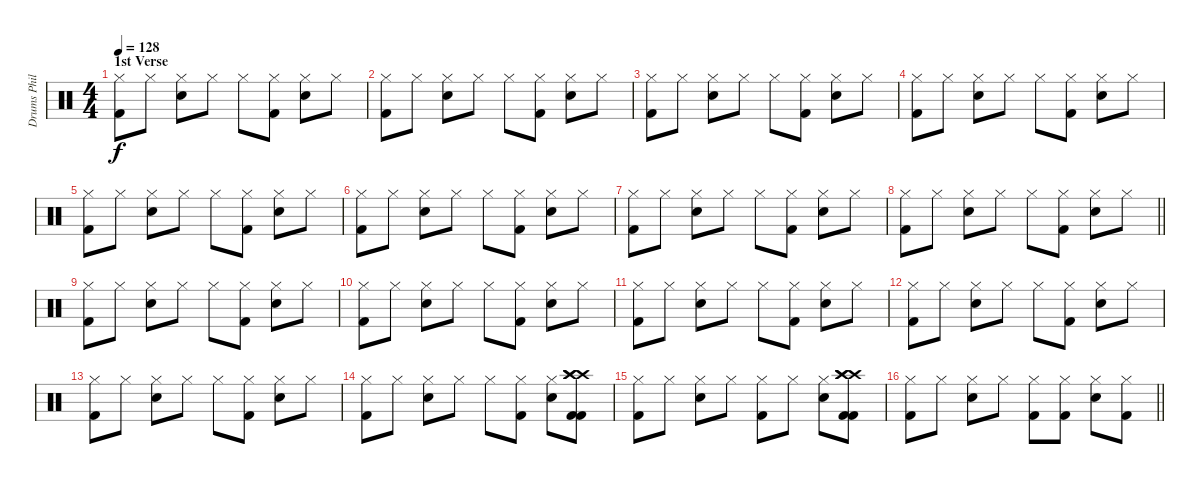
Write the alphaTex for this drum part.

\track ("Drums Phil Rudd" "Drums Phil") {instrument percussion}
\staff {score}
\articulation defaults
\ts (4 4)
\section ("" "1st Verse")
\tempo 128
\clef neutral
\ks c
("Hi-Hat (closed)" "Kick (hit) 2").8{dy f} "Hi-Hat (closed)".8 ("Hi-Hat (closed)" "Electric Snare (hit)").8 "Hi-Hat (closed)".8 "Hi-Hat (closed)".8 ("Hi-Hat (closed)" "Kick (hit) 2").8 ("Hi-Hat (closed)" "Electric Snare (hit)").8 "Hi-Hat (closed)".8 |
("Hi-Hat (closed)" "Kick (hit) 2").8 "Hi-Hat (closed)".8 ("Hi-Hat (closed)" "Electric Snare (hit)").8 "Hi-Hat (closed)".8 "Hi-Hat (closed)".8 ("Hi-Hat (closed)" "Kick (hit) 2").8 ("Hi-Hat (closed)" "Electric Snare (hit)").8 "Hi-Hat (closed)".8 |
("Hi-Hat (closed)" "Kick (hit) 2").8 "Hi-Hat (closed)".8 ("Hi-Hat (closed)" "Electric Snare (hit)").8 "Hi-Hat (closed)".8 "Hi-Hat (closed)".8 ("Hi-Hat (closed)" "Kick (hit) 2").8 ("Hi-Hat (closed)" "Electric Snare (hit)").8 "Hi-Hat (closed)".8 |
("Hi-Hat (closed)" "Kick (hit) 2").8 "Hi-Hat (closed)".8 ("Hi-Hat (closed)" "Electric Snare (hit)").8 "Hi-Hat (closed)".8 "Hi-Hat (closed)".8 ("Hi-Hat (closed)" "Kick (hit) 2").8 ("Hi-Hat (closed)" "Electric Snare (hit)").8 "Hi-Hat (closed)".8 |
("Hi-Hat (closed)" "Kick (hit) 2").8 "Hi-Hat (closed)".8 ("Hi-Hat (closed)" "Electric Snare (hit)").8 "Hi-Hat (closed)".8 "Hi-Hat (closed)".8 ("Hi-Hat (closed)" "Kick (hit) 2").8 ("Hi-Hat (closed)" "Electric Snare (hit)").8 "Hi-Hat (closed)".8 |
("Hi-Hat (closed)" "Kick (hit) 2").8 "Hi-Hat (closed)".8 ("Hi-Hat (closed)" "Electric Snare (hit)").8 "Hi-Hat (closed)".8 "Hi-Hat (closed)".8 ("Hi-Hat (closed)" "Kick (hit) 2").8 ("Hi-Hat (closed)" "Electric Snare (hit)").8 "Hi-Hat (closed)".8 |
("Hi-Hat (closed)" "Kick (hit) 2").8 "Hi-Hat (closed)".8 ("Hi-Hat (closed)" "Electric Snare (hit)").8 "Hi-Hat (closed)".8 "Hi-Hat (closed)".8 ("Hi-Hat (closed)" "Kick (hit) 2").8 ("Hi-Hat (closed)" "Electric Snare (hit)").8 "Hi-Hat (closed)".8 |
\barLineRight lightlight
("Hi-Hat (closed)" "Kick (hit) 2").8 "Hi-Hat (closed)".8 ("Hi-Hat (closed)" "Electric Snare (hit)").8 "Hi-Hat (closed)".8 "Hi-Hat (closed)".8 ("Hi-Hat (closed)" "Kick (hit) 2").8 ("Hi-Hat (closed)" "Electric Snare (hit)").8 "Hi-Hat (closed)".8 |
("Hi-Hat (closed)" "Kick (hit) 2").8 "Hi-Hat (closed)".8 ("Hi-Hat (closed)" "Electric Snare (hit)").8 "Hi-Hat (closed)".8 "Hi-Hat (closed)".8 ("Hi-Hat (closed)" "Kick (hit) 2").8 ("Hi-Hat (closed)" "Electric Snare (hit)").8 "Hi-Hat (closed)".8 |
("Hi-Hat (closed)" "Kick (hit) 2").8 "Hi-Hat (closed)".8 ("Hi-Hat (closed)" "Electric Snare (hit)").8 "Hi-Hat (closed)".8 "Hi-Hat (closed)".8 ("Hi-Hat (closed)" "Kick (hit) 2").8 ("Hi-Hat (closed)" "Electric Snare (hit)").8 "Hi-Hat (closed)".8 |
("Hi-Hat (closed)" "Kick (hit) 2").8 "Hi-Hat (closed)".8 ("Hi-Hat (closed)" "Electric Snare (hit)").8 "Hi-Hat (closed)".8 "Hi-Hat (closed)".8 ("Hi-Hat (closed)" "Kick (hit) 2").8 ("Hi-Hat (closed)" "Electric Snare (hit)").8 "Hi-Hat (closed)".8 |
("Hi-Hat (closed)" "Kick (hit) 2").8 "Hi-Hat (closed)".8 ("Hi-Hat (closed)" "Electric Snare (hit)").8 "Hi-Hat (closed)".8 "Hi-Hat (closed)".8 ("Hi-Hat (closed)" "Kick (hit) 2").8 ("Hi-Hat (closed)" "Electric Snare (hit)").8 "Hi-Hat (closed)".8 |
("Hi-Hat (closed)" "Kick (hit) 2").8 "Hi-Hat (closed)".8 ("Hi-Hat (closed)" "Electric Snare (hit)").8 "Hi-Hat (closed)".8 "Hi-Hat (closed)".8 ("Hi-Hat (closed)" "Kick (hit) 2").8 ("Hi-Hat (closed)" "Electric Snare (hit)").8 "Hi-Hat (closed)".8 |
("Hi-Hat (closed)" "Kick (hit) 2").8 "Hi-Hat (closed)".8 ("Hi-Hat (closed)" "Electric Snare (hit)").8 "Hi-Hat (closed)".8 "Hi-Hat (closed)".8 ("Hi-Hat (closed)" "Kick (hit) 2").8 ("Hi-Hat (closed)" "Electric Snare (hit)").8 ("Crash high (hit)" "Crash high (hit)" "Crash high (hit)" "Kick (hit) 2" "Kick (hit) 2").8 |
("Hi-Hat (closed)" "Kick (hit) 2").8 "Hi-Hat (closed)".8 ("Hi-Hat (closed)" "Electric Snare (hit)").8 "Hi-Hat (closed)".8 ("Hi-Hat (closed)" "Kick (hit) 2").8 "Hi-Hat (closed)".8 ("Hi-Hat (closed)" "Electric Snare (hit)").8 ("Crash high (hit)" "Crash high (hit)" "Crash high (hit)" "Kick (hit) 2" "Kick (hit) 2").8 |
\barLineRight lightlight
("Hi-Hat (closed)" "Kick (hit) 2").8 "Hi-Hat (closed)".8 ("Hi-Hat (closed)" "Electric Snare (hit)").8 "Hi-Hat (closed)".8 ("Hi-Hat (closed)" "Kick (hit) 2").8 ("Hi-Hat (closed)" "Kick (hit) 2").8 ("Hi-Hat (closed)" "Electric Snare (hit)").8 ("Hi-Hat (closed)" "Kick (hit) 2").8
